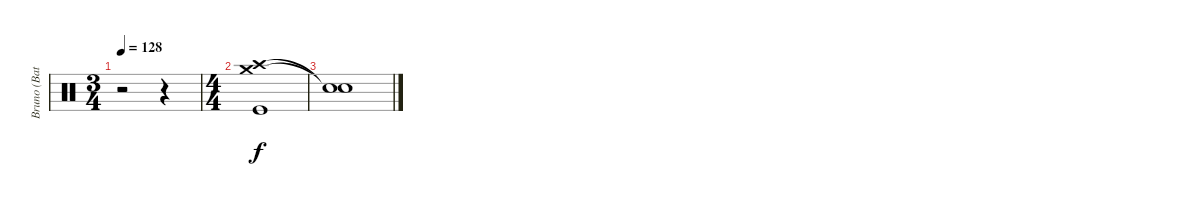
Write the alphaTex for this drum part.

\track ("Bruno (Bateria)" "Bruno (Bat") {instrument percussion}
\staff {score}
\articulation defaults
\ts (3 4)
\tempo 128
\clef neutral
\ks c
r.2{dy ppp} r.4 |
\ts (4 4)
("Crash high (hit)" "Crash medium (hit)" "Kick (hit)").1{dy f} |
("Snare (hit)"{t} "Snare (hit)"{t}).1
